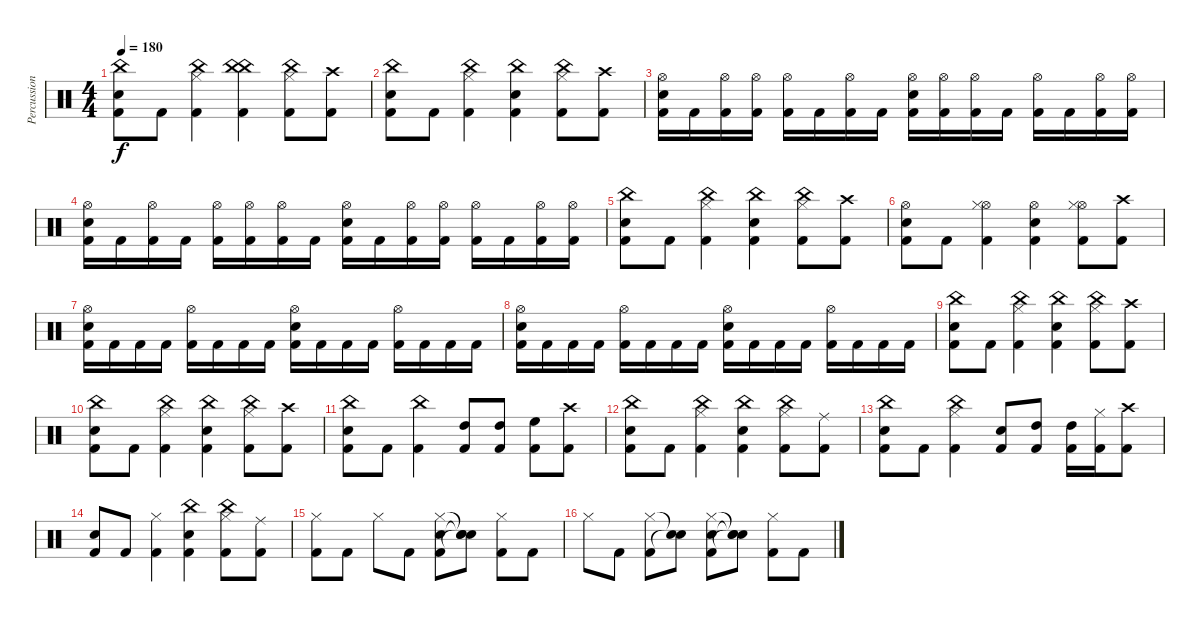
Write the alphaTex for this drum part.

\track ("Percussion" "Percussion") {instrument percussion}
\staff {score}
\articulation defaults
\ts (4 4)
\tempo 180
\clef neutral
\ks c
("China (hit)" "Snare (hit) 2" "Kick (hit) 2").8{dy f} "Kick (hit) 2".8 ("China (hit)" "Hi-Hat (closed)" "Kick (hit) 2").4 ("China (hit)" "China (hit)" "Kick (hit) 2").4 ("China (hit)" "Hi-Hat (closed)" "Kick (hit) 2").8 ("Crash high (hit)" "Kick (hit) 2").8 |
("China (hit)" "Snare (hit) 2" "Kick (hit) 2").8 "Kick (hit) 2".8 ("China (hit)" "Hi-Hat (closed)" "Kick (hit) 2").4 ("China (hit)" "Snare (hit) 2" "Kick (hit) 2").4 ("China (hit)" "Hi-Hat (closed)" "Kick (hit) 2").8 ("Crash high (hit)" "Kick (hit) 2").8 |
("Hi-Hat (open)" "Snare (hit) 2" "Kick (hit) 2").16 "Kick (hit) 2".16 ("Hi-Hat (open)" "Kick (hit) 2").16 ("Hi-Hat (open)" "Kick (hit) 2").16 ("Hi-Hat (open)" "Kick (hit) 2").16 "Kick (hit) 2".16 ("Hi-Hat (open)" "Kick (hit) 2").16 "Kick (hit) 2".16 ("Hi-Hat (open)" "Snare (hit) 2" "Kick (hit) 2").16 ("Hi-Hat (open)" "Kick (hit) 2").16 ("Hi-Hat (open)" "Kick (hit) 2").16 "Kick (hit) 2".16 ("Hi-Hat (open)" "Kick (hit) 2").16 "Kick (hit) 2".16 ("Hi-Hat (open)" "Kick (hit) 2").16 ("Hi-Hat (open)" "Kick (hit) 2").16 |
("Hi-Hat (open)" "Snare (hit) 2" "Kick (hit) 2").16 "Kick (hit) 2".16 ("Hi-Hat (open)" "Kick (hit) 2").16 "Kick (hit) 2".16 ("Hi-Hat (open)" "Kick (hit) 2").16 ("Hi-Hat (open)" "Kick (hit) 2").16 ("Hi-Hat (open)" "Kick (hit) 2").16 "Kick (hit) 2".16 ("Hi-Hat (open)" "Snare (hit) 2" "Kick (hit) 2").16 "Kick (hit) 2".16 ("Hi-Hat (open)" "Kick (hit) 2").16 ("Hi-Hat (open)" "Kick (hit) 2").16 ("Hi-Hat (open)" "Kick (hit) 2").16 "Kick (hit) 2".16 ("Hi-Hat (open)" "Kick (hit) 2").16 ("Hi-Hat (open)" "Kick (hit) 2").16 |
("China (hit)" "Snare (hit) 2" "Kick (hit) 2").8 "Kick (hit) 2".8 ("China (hit)" "Hi-Hat (closed)" "Kick (hit) 2").4 ("China (hit)" "Snare (hit) 2" "Kick (hit) 2").4 ("China (hit)" "Hi-Hat (closed)" "Kick (hit) 2").8 ("Crash high (hit)" "Kick (hit) 2").8 |
("Hi-Hat (open)" "Snare (hit) 2" "Kick (hit) 2").8 "Kick (hit) 2".8 ("Hi-Hat (open)" "Hi-Hat (closed)" "Kick (hit) 2").4 ("Hi-Hat (open)" "Snare (hit) 2" "Kick (hit) 2").4 ("Hi-Hat (open)" "Hi-Hat (closed)" "Kick (hit) 2").8 ("Crash high (hit)" "Kick (hit) 2").8 |
("Hi-Hat (open)" "Snare (hit) 2" "Kick (hit) 2").16 "Kick (hit) 2".16 "Kick (hit) 2".16 "Kick (hit) 2".16 ("Hi-Hat (open)" "Kick (hit) 2").16 "Kick (hit) 2".16 "Kick (hit) 2".16 "Kick (hit) 2".16 ("Hi-Hat (open)" "Snare (hit) 2" "Kick (hit) 2").16 "Kick (hit) 2".16 "Kick (hit) 2".16 "Kick (hit) 2".16 ("Hi-Hat (open)" "Kick (hit) 2").16 "Kick (hit) 2".16 "Kick (hit) 2".16 "Kick (hit) 2".16 |
("Hi-Hat (open)" "Snare (hit) 2" "Kick (hit) 2").16 "Kick (hit) 2".16 "Kick (hit) 2".16 "Kick (hit) 2".16 ("Hi-Hat (open)" "Kick (hit) 2").16 "Kick (hit) 2".16 "Kick (hit) 2".16 "Kick (hit) 2".16 ("Hi-Hat (open)" "Snare (hit) 2" "Kick (hit) 2").16 "Kick (hit) 2".16 "Kick (hit) 2".16 "Kick (hit) 2".16 ("Hi-Hat (open)" "Kick (hit) 2").16 "Kick (hit) 2".16 "Kick (hit) 2".16 "Kick (hit) 2".16 |
("China (hit)" "Snare (hit) 2" "Kick (hit) 2").8 "Kick (hit) 2".8 ("China (hit)" "Hi-Hat (closed)" "Kick (hit) 2").4 ("China (hit)" "Snare (hit) 2" "Kick (hit) 2").4 ("China (hit)" "Hi-Hat (closed)" "Kick (hit) 2").8 ("Crash high (hit)" "Kick (hit) 2").8 |
("China (hit)" "Snare (hit) 2" "Kick (hit) 2").8 "Kick (hit) 2".8 ("China (hit)" "Hi-Hat (closed)" "Kick (hit) 2").4 ("China (hit)" "Snare (hit) 2" "Kick (hit) 2").4 ("China (hit)" "Hi-Hat (closed)" "Kick (hit) 2").8 ("Crash high (hit)" "Kick (hit) 2").8 |
("China (hit)" "Snare (hit) 2" "Kick (hit) 2").8 "Kick (hit) 2".8 ("China (hit)" "Kick (hit) 2").4 ("High Tom (hit)" "Kick (hit) 2").8 ("High Tom (hit)" "Kick (hit) 2").8 ("High Floor Tom (hit)" "Kick (hit) 2").8 ("Crash high (hit)" "Kick (hit) 2").8 |
("China (hit)" "Snare (hit) 2" "Kick (hit) 2").8 "Kick (hit) 2".8 ("China (hit)" "Hi-Hat (closed)" "Kick (hit) 2").4 ("China (hit)" "Snare (hit) 2" "Kick (hit) 2").4 ("China (hit)" "Hi-Hat (closed)" "Kick (hit) 2").8 ("Ride (middle)" "Kick (hit) 2").8 |
("China (hit)" "Snare (hit) 2" "Kick (hit) 2").8 "Kick (hit) 2".8 ("China (hit)" "Hi-Hat (closed)" "Kick (hit) 2").4 ("Snare (hit) 2" "Kick (hit) 2").8 ("High Tom (hit)" "Kick (hit) 2").8 ("High Tom (hit)" "Kick (hit) 2").16 ("Hi-Hat (closed)" "Kick (hit) 2").16 ("Crash high (hit)" "Kick (hit) 2").8 |
("Snare (hit) 2" "Kick (hit) 2").8 "Kick (hit) 2".8 ("Hi-Hat (closed)" "Kick (hit) 2").4 ("China (hit)" "Snare (hit) 2" "Kick (hit) 2").4 ("China (hit)" "Hi-Hat (closed)" "Kick (hit) 2").8 ("Ride (middle)" "Kick (hit) 2").8 |
("Hi-Hat (closed)" "Kick (hit) 2").8 "Kick (hit) 2".8 "Hi-Hat (closed)".8 "Kick (hit) 2".8 ("Hi-Hat (closed)" "Snare (hit) 2" "Kick (hit) 2").8 ("Snare (hit)"{t} "Snare (hit)"{t} "Snare (hit)"{t}).8 ("Hi-Hat (closed)" "Kick (hit) 2").8 "Kick (hit) 2".8 |
"Hi-Hat (closed)".8 "Kick (hit) 2".8 ("Hi-Hat (closed)" "Kick (hit) 2").8 ("Snare (hit)"{t} "Snare (hit)"{t}).8 ("Hi-Hat (closed)" "Snare (hit) 2" "Kick (hit) 2").8 ("Snare (hit)"{t} "Snare (hit)"{t} "Snare (hit)"{t}).8 ("Hi-Hat (closed)" "Kick (hit) 2").8 "Kick (hit) 2".8
